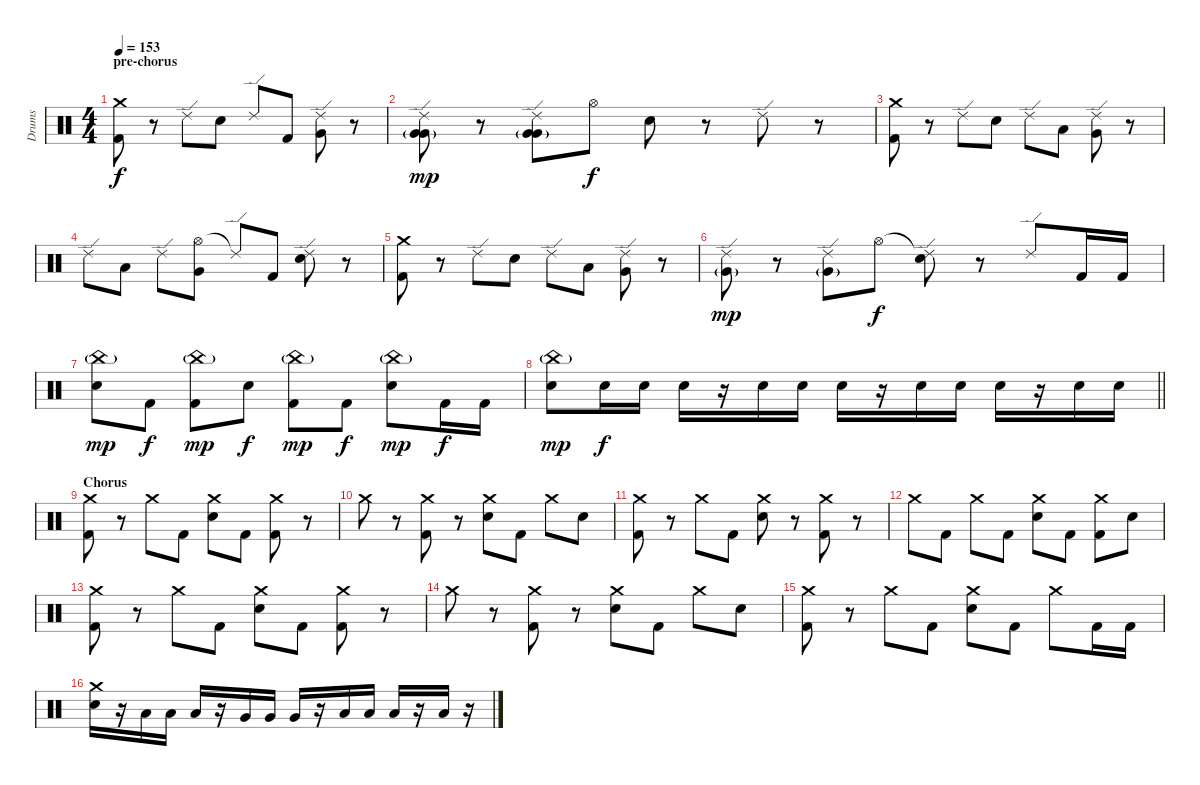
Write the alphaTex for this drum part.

\track ("Drums" "Drums") {instrument percussion}
\staff {score}
\articulation defaults
\ts (4 4)
\section ("" "pre-chorus")
\tempo 153
\clef neutral
\ks c
("Crash medium (hit)" "Kick (hit) 2").8{dy f} r.8 "Ride (edge) 2".8 "Electric Snare (hit)".8 "Ride (edge) 2".8 "Kick (hit) 2".8 ("Ride (edge) 2" "Very Low Tom (hit)").8 r.8 |
("Very Low Tom (hit)"{g} "Ride (edge) 2" "Very Low Tom (hit)"{g}).8{dy mp} r.8 ("Very Low Tom (hit)"{g} "Ride (edge) 2" "Very Low Tom (hit)"{g}).8 "Hi-Hat (open)".8{dy f} "Electric Snare (hit)".8 r.8 "Ride (edge) 2".8 r.8 |
("Crash medium (hit)" "Kick (hit) 2").8 r.8 "Ride (edge) 2".8 "Electric Snare (hit)".8 "Ride (edge) 2".8 "Low Tom (hit)".8 ("Ride (edge) 2" "Very Low Tom (hit)").8 r.8 |
"Ride (edge) 2".8 "Low Tom (hit)".8 "Ride (edge) 2".8 ("Hi-Hat (open)" "Very Low Tom (hit)").8 "Ride (edge) 2"{t}.8 "Kick (hit) 2".8 ("Ride (edge) 2" "Electric Snare (hit)").8 r.8 |
("Crash medium (hit)" "Kick (hit) 2").8 r.8 "Ride (edge) 2".8 "Electric Snare (hit)".8 "Ride (edge) 2".8 "Low Tom (hit)".8 ("Ride (edge) 2" "Very Low Tom (hit)").8 r.8 |
("Ride (edge) 2" "Very Low Tom (hit)"{g}).8{dy mp} r.8 ("Ride (edge) 2" "Very Low Tom (hit)"{g}).8 "Hi-Hat (open)".8{dy f} ("Ride (edge) 2"{t} "Electric Snare (hit)").8 r.8 "Ride (edge) 2".8 "Kick (hit) 2".16 "Kick (hit) 2".16 |
("China (hit)"{g} "Electric Snare (hit)").8{dy mp} "Kick (hit) 2".8{dy f} ("China (hit)"{g} "Kick (hit) 2").8{dy mp} "Electric Snare (hit)".8{dy f} ("China (hit)"{g} "Kick (hit) 2").8{dy mp} "Kick (hit) 2".8{dy f} ("China (hit)"{g} "Electric Snare (hit)").8{dy mp} "Kick (hit) 2".16{dy f} "Kick (hit) 2".16 |
\barLineRight lightlight
("China (hit)"{g} "Electric Snare (hit)").8{dy mp} "Electric Snare (hit)".16{dy f} "Electric Snare (hit)".16 "Electric Snare (hit)".16 r.16 "Electric Snare (hit)".16 "Electric Snare (hit)".16 "Electric Snare (hit)".16 r.16 "Electric Snare (hit)".16 "Electric Snare (hit)".16 "Electric Snare (hit)".16 r.16 "Electric Snare (hit)".16 "Electric Snare (hit)".16 |
\section ("" "Chorus")
("Crash medium (hit)" "Kick (hit) 2").8 r.8 "Crash medium (hit)".8 "Kick (hit) 2".8 ("Crash medium (hit)" "Electric Snare (hit)").8 "Kick (hit) 2".8 ("Crash medium (hit)" "Kick (hit) 2").8 r.8 |
"Crash medium (hit)".8 r.8 ("Crash medium (hit)" "Kick (hit) 2").8 r.8 ("Crash medium (hit)" "Electric Snare (hit)").8 "Kick (hit) 2".8 "Crash medium (hit)".8 "Electric Snare (hit)".8 |
("Crash medium (hit)" "Kick (hit) 2").8 r.8 "Crash medium (hit)".8 "Kick (hit) 2".8 ("Crash medium (hit)" "Electric Snare (hit)").8 r.8 ("Crash medium (hit)" "Kick (hit) 2").8 r.8 |
"Crash medium (hit)".8 "Kick (hit) 2".8 "Crash medium (hit)".8 "Kick (hit) 2".8 ("Crash medium (hit)" "Electric Snare (hit)").8 "Kick (hit) 2".8 ("Crash medium (hit)" "Kick (hit) 2").8 "Electric Snare (hit)".8 |
("Crash medium (hit)" "Kick (hit) 2").8 r.8 "Crash medium (hit)".8 "Kick (hit) 2".8 ("Crash medium (hit)" "Electric Snare (hit)").8 "Kick (hit) 2".8 ("Crash medium (hit)" "Kick (hit) 2").8 r.8 |
"Crash medium (hit)".8 r.8 ("Crash medium (hit)" "Kick (hit) 2").8 r.8 ("Crash medium (hit)" "Electric Snare (hit)").8 "Kick (hit) 2".8 "Crash medium (hit)".8 "Electric Snare (hit)".8 |
("Crash medium (hit)" "Kick (hit) 2").8 r.8 "Crash medium (hit)".8 "Kick (hit) 2".8 ("Crash medium (hit)" "Electric Snare (hit)").8 "Kick (hit) 2".8 "Crash medium (hit)".8 "Kick (hit) 2".16 "Kick (hit) 2".16 |
("Crash medium (hit)" "Electric Snare (hit)").16 r.16 "Low Tom (hit)".16 "Low Tom (hit)".16 "Low Tom (hit)".16 r.16 "Very Low Tom (hit)".16 "Very Low Tom (hit)".16 "Very Low Tom (hit)".16 r.16 "Low Floor Tom (hit)".16 "Low Floor Tom (hit)".16 "Low Floor Tom (hit)".16 r.16 "Low Floor Tom (hit)".16 r.16
